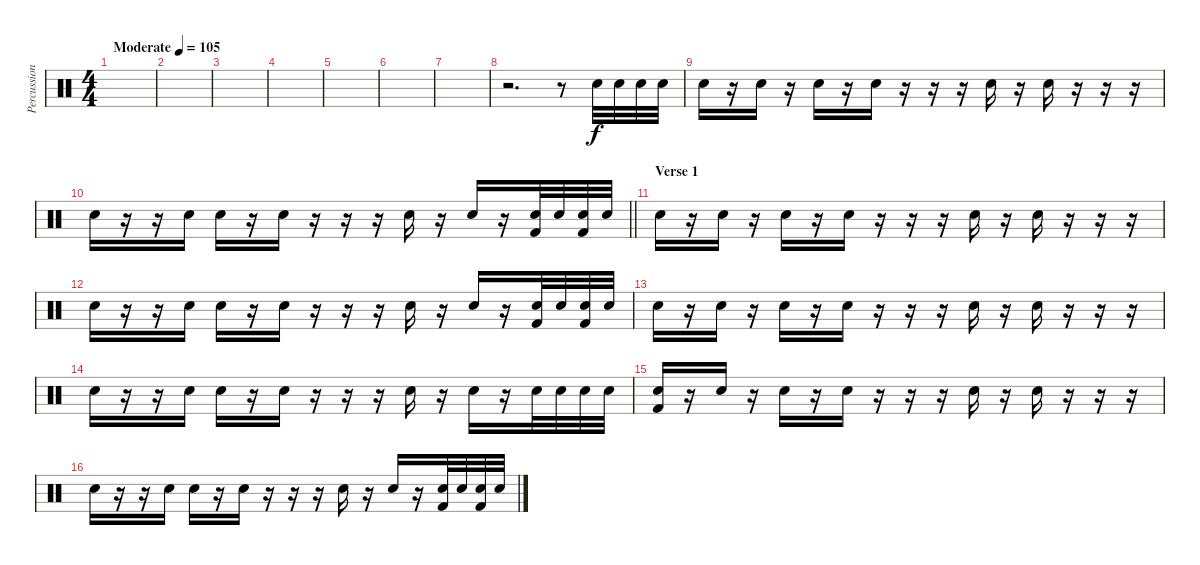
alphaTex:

\track ("Percussion" "Percussion") {instrument percussion}
\staff {score}
\articulation defaults
\ts (4 4)
\tempo (105 "Moderate")
\clef neutral
\ks c
|
|
|
|
|
|
|
r.2{d} r.8 "Snare (hit) 2".32 "Snare (hit) 2".32 "Snare (hit) 2".32 "Snare (hit) 2".32 |
"Snare (hit) 2".16 r.16 "Snare (hit) 2".16 r.16 "Snare (hit) 2".16 r.16 "Snare (hit) 2".16 r.16 r.16 r.16 "Snare (hit) 2".16 r.16 "Snare (hit) 2".16 r.16 r.16 r.16 |
\barLineRight lightlight "Snare (hit) 2".16
r.16 r.16 "Snare (hit) 2".16 "Snare (hit) 2".16 r.16 "Snare (hit) 2".16 r.16 r.16 r.16 "Snare (hit) 2".16 r.16 "Snare (hit) 2".16 r.16 ("Snare (hit) 2" "Kick (hit) 2").32 "Snare (hit) 2".32 ("Snare (hit) 2" "Kick (hit) 2").32 "Snare (hit) 2".32 |
\section ("" "Verse 1")
"Snare (hit) 2".16 r.16 "Snare (hit) 2".16 r.16 "Snare (hit) 2".16 r.16 "Snare (hit) 2".16 r.16 r.16 r.16 "Snare (hit) 2".16 r.16 "Snare (hit) 2".16 r.16 r.16 r.16 |
"Snare (hit) 2".16 r.16 r.16 "Snare (hit) 2".16 "Snare (hit) 2".16 r.16 "Snare (hit) 2".16 r.16 r.16 r.16 "Snare (hit) 2".16 r.16 "Snare (hit) 2".16 r.16 ("Snare (hit) 2" "Kick (hit) 2").32 "Snare (hit) 2".32 ("Snare (hit) 2" "Kick (hit) 2").32 "Snare (hit) 2".32 |
"Snare (hit) 2".16 r.16 "Snare (hit) 2".16 r.16 "Snare (hit) 2".16 r.16 "Snare (hit) 2".16 r.16 r.16 r.16 "Snare (hit) 2".16 r.16 "Snare (hit) 2".16 r.16 r.16 r.16 |
"Snare (hit) 2".16 r.16 r.16 "Snare (hit) 2".16 "Snare (hit) 2".16 r.16 "Snare (hit) 2".16 r.16 r.16 r.16 "Snare (hit) 2".16 r.16 "Snare (hit) 2".16 r.16 "Snare (hit) 2".32 "Snare (hit) 2".32 "Snare (hit) 2".32 "Snare (hit) 2".32 |
("Snare (hit) 2" "Kick (hit) 2").16 r.16 "Snare (hit) 2".16 r.16 "Snare (hit) 2".16 r.16 "Snare (hit) 2".16 r.16 r.16 r.16 "Snare (hit) 2".16 r.16 "Snare (hit) 2".16 r.16 r.16 r.16 |
"Snare (hit) 2".16 r.16 r.16 "Snare (hit) 2".16 "Snare (hit) 2".16 r.16 "Snare (hit) 2".16 r.16 r.16 r.16 "Snare (hit) 2".16 r.16 "Snare (hit) 2".16 r.16 ("Snare (hit) 2" "Kick (hit) 2").32 "Snare (hit) 2".32 ("Snare (hit) 2" "Kick (hit) 2").32 "Snare (hit) 2".32
